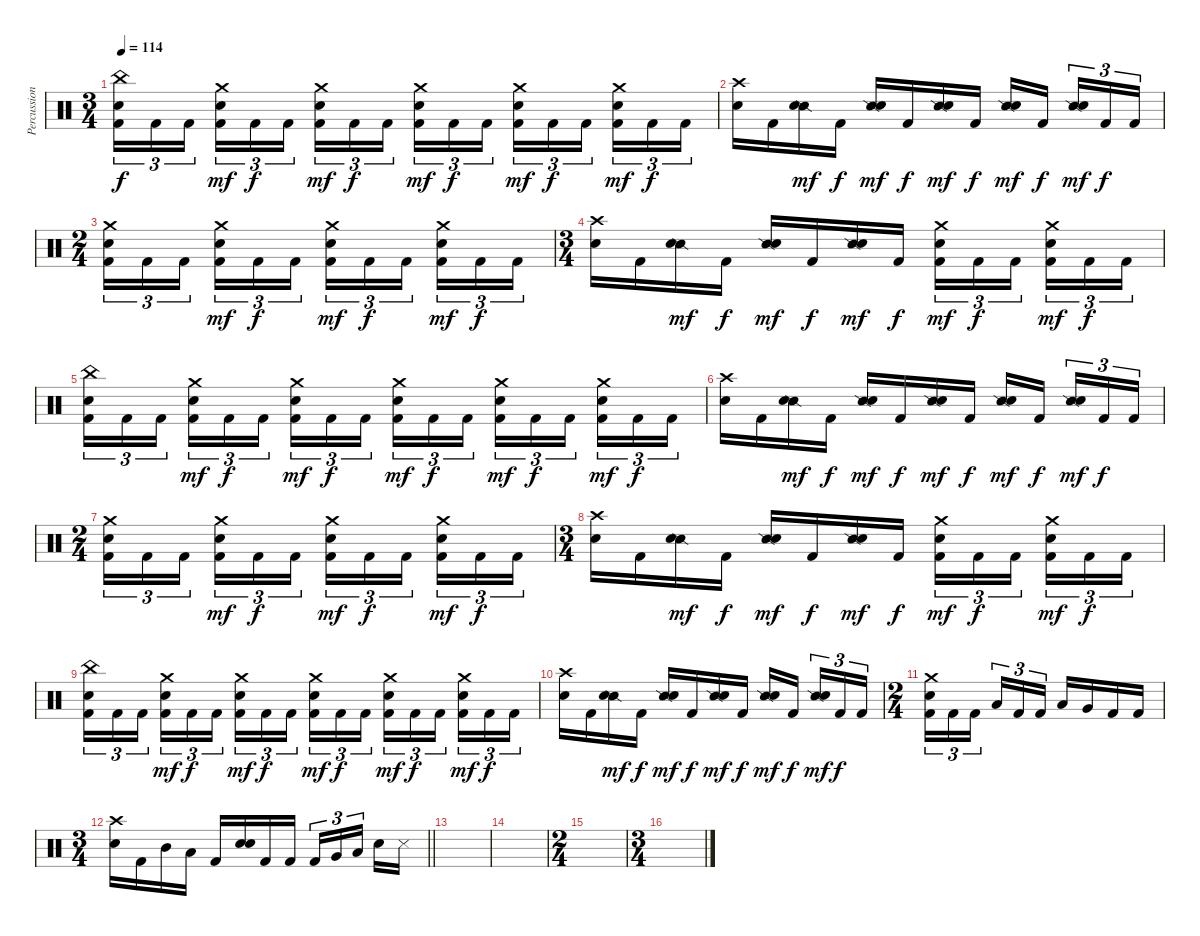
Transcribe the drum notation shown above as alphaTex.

\track ("Percussion" "Percussion") {instrument percussion}
\staff {score}
\articulation defaults
\ts (3 4)
\tempo 114
\clef neutral
\ks c
("China (hit)" "Snare (hit) 2" "Kick (hit) 2").16{tu (3 2) dy f} "Kick (hit) 2".16{tu (3 2)} "Kick (hit) 2".16{tu (3 2) beam splitsecondary} ("Crash medium (hit)" "Snare (hit) 2" "Kick (hit) 2").16{tu (3 2) dy mf} "Kick (hit) 2".16{tu (3 2) dy f} "Kick (hit) 2".16{tu (3 2)} ("Crash medium (hit)" "Snare (hit) 2" "Kick (hit) 2").16{tu (3 2) dy mf} "Kick (hit) 2".16{tu (3 2) dy f} "Kick (hit) 2".16{tu (3 2) beam splitsecondary} ("Crash medium (hit)" "Snare (hit) 2" "Kick (hit) 2").16{tu (3 2) dy mf} "Kick (hit) 2".16{tu (3 2) dy f} "Kick (hit) 2".16{tu (3 2)} ("Crash medium (hit)" "Snare (hit) 2" "Kick (hit) 2").16{tu (3 2) dy mf} "Kick (hit) 2".16{tu (3 2) dy f} "Kick (hit) 2".16{tu (3 2) beam splitsecondary} ("Crash medium (hit)" "Snare (hit) 2" "Kick (hit) 2").16{tu (3 2) dy mf} "Kick (hit) 2".16{tu (3 2) dy f} "Kick (hit) 2".16{tu (3 2)} |
("Crash high (hit)" "Snare (hit) 2").16 "Kick (hit) 2".16 ("Snare (side stick) 2" "Snare (hit) 2").16{dy mf} "Kick (hit) 2".16{dy f} ("Snare (side stick) 2" "Snare (hit) 2").16{dy mf} "Kick (hit) 2".16{dy f} ("Snare (side stick) 2" "Snare (hit) 2").16{dy mf} "Kick (hit) 2".16{dy f} ("Snare (side stick) 2" "Snare (hit) 2").16{dy mf} "Kick (hit) 2".16{dy f beam splitsecondary} ("Snare (side stick) 2" "Snare (hit) 2").16{tu (3 2) dy mf} "Kick (hit) 2".16{tu (3 2) dy f} "Kick (hit) 2".16{tu (3 2)} |
\ts (2 4)
("Crash medium (hit)" "Snare (hit) 2" "Kick (hit) 2").16{tu (3 2)} "Kick (hit) 2".16{tu (3 2)} "Kick (hit) 2".16{tu (3 2) beam splitsecondary} ("Crash medium (hit)" "Snare (hit) 2" "Kick (hit) 2").16{tu (3 2) dy mf} "Kick (hit) 2".16{tu (3 2) dy f} "Kick (hit) 2".16{tu (3 2)} ("Crash medium (hit)" "Snare (hit) 2" "Kick (hit) 2").16{tu (3 2) dy mf} "Kick (hit) 2".16{tu (3 2) dy f} "Kick (hit) 2".16{tu (3 2) beam splitsecondary} ("Crash medium (hit)" "Snare (hit) 2" "Kick (hit) 2").16{tu (3 2) dy mf} "Kick (hit) 2".16{tu (3 2) dy f} "Kick (hit) 2".16{tu (3 2)} |
\ts (3 4)
("Crash high (hit)" "Snare (hit) 2").16 "Kick (hit) 2".16 ("Snare (side stick) 2" "Snare (hit) 2").16{dy mf} "Kick (hit) 2".16{dy f} ("Snare (side stick) 2" "Snare (hit) 2").16{dy mf} "Kick (hit) 2".16{dy f} ("Snare (side stick) 2" "Snare (hit) 2").16{dy mf} "Kick (hit) 2".16{dy f} ("Crash medium (hit)" "Snare (hit) 2" "Kick (hit) 2").16{tu (3 2) dy mf} "Kick (hit) 2".16{tu (3 2) dy f} "Kick (hit) 2".16{tu (3 2) beam splitsecondary} ("Crash medium (hit)" "Snare (hit) 2" "Kick (hit) 2").16{tu (3 2) dy mf} "Kick (hit) 2".16{tu (3 2) dy f} "Kick (hit) 2".16{tu (3 2)} |
("China (hit)" "Snare (hit) 2" "Kick (hit) 2").16{tu (3 2)} "Kick (hit) 2".16{tu (3 2)} "Kick (hit) 2".16{tu (3 2) beam splitsecondary} ("Crash medium (hit)" "Snare (hit) 2" "Kick (hit) 2").16{tu (3 2) dy mf} "Kick (hit) 2".16{tu (3 2) dy f} "Kick (hit) 2".16{tu (3 2)} ("Crash medium (hit)" "Snare (hit) 2" "Kick (hit) 2").16{tu (3 2) dy mf} "Kick (hit) 2".16{tu (3 2) dy f} "Kick (hit) 2".16{tu (3 2) beam splitsecondary} ("Crash medium (hit)" "Snare (hit) 2" "Kick (hit) 2").16{tu (3 2) dy mf} "Kick (hit) 2".16{tu (3 2) dy f} "Kick (hit) 2".16{tu (3 2)} ("Crash medium (hit)" "Snare (hit) 2" "Kick (hit) 2").16{tu (3 2) dy mf} "Kick (hit) 2".16{tu (3 2) dy f} "Kick (hit) 2".16{tu (3 2) beam splitsecondary} ("Crash medium (hit)" "Snare (hit) 2" "Kick (hit) 2").16{tu (3 2) dy mf} "Kick (hit) 2".16{tu (3 2) dy f} "Kick (hit) 2".16{tu (3 2)} |
("Crash high (hit)" "Snare (hit) 2").16 "Kick (hit) 2".16 ("Snare (side stick) 2" "Snare (hit) 2").16{dy mf} "Kick (hit) 2".16{dy f} ("Snare (side stick) 2" "Snare (hit) 2").16{dy mf} "Kick (hit) 2".16{dy f} ("Snare (side stick) 2" "Snare (hit) 2").16{dy mf} "Kick (hit) 2".16{dy f} ("Snare (side stick) 2" "Snare (hit) 2").16{dy mf} "Kick (hit) 2".16{dy f beam splitsecondary} ("Snare (side stick) 2" "Snare (hit) 2").16{tu (3 2) dy mf} "Kick (hit) 2".16{tu (3 2) dy f} "Kick (hit) 2".16{tu (3 2)} |
\ts (2 4)
("Crash medium (hit)" "Snare (hit) 2" "Kick (hit) 2").16{tu (3 2)} "Kick (hit) 2".16{tu (3 2)} "Kick (hit) 2".16{tu (3 2) beam splitsecondary} ("Crash medium (hit)" "Snare (hit) 2" "Kick (hit) 2").16{tu (3 2) dy mf} "Kick (hit) 2".16{tu (3 2) dy f} "Kick (hit) 2".16{tu (3 2)} ("Crash medium (hit)" "Snare (hit) 2" "Kick (hit) 2").16{tu (3 2) dy mf} "Kick (hit) 2".16{tu (3 2) dy f} "Kick (hit) 2".16{tu (3 2) beam splitsecondary} ("Crash medium (hit)" "Snare (hit) 2" "Kick (hit) 2").16{tu (3 2) dy mf} "Kick (hit) 2".16{tu (3 2) dy f} "Kick (hit) 2".16{tu (3 2)} |
\ts (3 4)
("Crash high (hit)" "Snare (hit) 2").16 "Kick (hit) 2".16 ("Snare (side stick) 2" "Snare (hit) 2").16{dy mf} "Kick (hit) 2".16{dy f} ("Snare (side stick) 2" "Snare (hit) 2").16{dy mf} "Kick (hit) 2".16{dy f} ("Snare (side stick) 2" "Snare (hit) 2").16{dy mf} "Kick (hit) 2".16{dy f} ("Crash medium (hit)" "Snare (hit) 2" "Kick (hit) 2").16{tu (3 2) dy mf} "Kick (hit) 2".16{tu (3 2) dy f} "Kick (hit) 2".16{tu (3 2) beam splitsecondary} ("Crash medium (hit)" "Snare (hit) 2" "Kick (hit) 2").16{tu (3 2) dy mf} "Kick (hit) 2".16{tu (3 2) dy f} "Kick (hit) 2".16{tu (3 2)} |
("China (hit)" "Snare (hit) 2" "Kick (hit) 2").16{tu (3 2)} "Kick (hit) 2".16{tu (3 2)} "Kick (hit) 2".16{tu (3 2) beam splitsecondary} ("Crash medium (hit)" "Snare (hit) 2" "Kick (hit) 2").16{tu (3 2) dy mf} "Kick (hit) 2".16{tu (3 2) dy f} "Kick (hit) 2".16{tu (3 2)} ("Crash medium (hit)" "Snare (hit) 2" "Kick (hit) 2").16{tu (3 2) dy mf} "Kick (hit) 2".16{tu (3 2) dy f} "Kick (hit) 2".16{tu (3 2) beam splitsecondary} ("Crash medium (hit)" "Snare (hit) 2" "Kick (hit) 2").16{tu (3 2) dy mf} "Kick (hit) 2".16{tu (3 2) dy f} "Kick (hit) 2".16{tu (3 2)} ("Crash medium (hit)" "Snare (hit) 2" "Kick (hit) 2").16{tu (3 2) dy mf} "Kick (hit) 2".16{tu (3 2) dy f} "Kick (hit) 2".16{tu (3 2) beam splitsecondary} ("Crash medium (hit)" "Snare (hit) 2" "Kick (hit) 2").16{tu (3 2) dy mf} "Kick (hit) 2".16{tu (3 2) dy f} "Kick (hit) 2".16{tu (3 2)} |
("Crash high (hit)" "Snare (hit) 2").16 "Kick (hit) 2".16 ("Snare (side stick) 2" "Snare (hit) 2").16{dy mf} "Kick (hit) 2".16{dy f} ("Snare (side stick) 2" "Snare (hit) 2").16{dy mf} "Kick (hit) 2".16{dy f} ("Snare (side stick) 2" "Snare (hit) 2").16{dy mf} "Kick (hit) 2".16{dy f} ("Snare (side stick) 2" "Snare (hit) 2").16{dy mf} "Kick (hit) 2".16{dy f beam splitsecondary} ("Snare (side stick) 2" "Snare (hit) 2").16{tu (3 2) dy mf} "Kick (hit) 2".16{tu (3 2) dy f} "Kick (hit) 2".16{tu (3 2)} |
\ts (2 4)
("Crash medium (hit)" "Snare (hit) 2" "Kick (hit) 2").16{tu (3 2)} "Kick (hit) 2".16{tu (3 2)} "Kick (hit) 2".16{tu (3 2) beam splitsecondary} "Low Tom (hit)".16{tu (3 2)} "Kick (hit) 2".16{tu (3 2)} "Kick (hit) 2".16{tu (3 2)} "Low Tom (hit)".16 "Very Low Tom (hit)".16 "Kick (hit) 2".16 "Kick (hit) 2".16 |
\ts (3 4)
\barLineRight lightlight
("Crash high (hit)" "Snare (hit) 2").16 "Kick (hit) 2".16 "Mid Tom (hit)".16 "Low Floor Tom (hit)".16 "Kick (hit) 2".16 ("Snare (hit)" "Snare (hit) 2").16 "Kick (hit) 2".16 "Kick (hit) 2".16 "Kick (hit) 2".16{tu (3 2)} "Very Low Tom (hit)".16{tu (3 2)} "Low Floor Tom (hit)".16{tu (3 2) beam splitsecondary} "Snare (hit) 2".16 "Metronome (hit)".16 |
|
|
\ts (2 4)
|
\ts (3 4)
